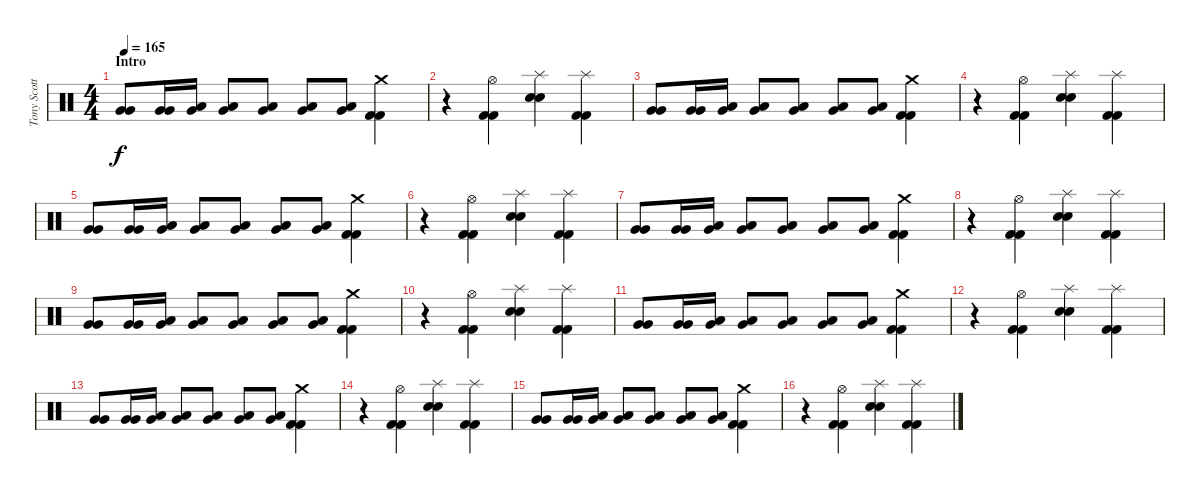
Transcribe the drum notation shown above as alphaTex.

\track ("Tony Scotto (bateria)" "Tony Scott") {instrument percussion}
\staff {score}
\articulation defaults
\ts (4 4)
\section ("" "Intro")
\tempo 165
\clef neutral
\ks c
("Very Low Tom (hit)" "Very Low Tom (hit)").8{dy f} ("Very Low Tom (hit)" "Very Low Tom (hit)").16 ("Low Tom (hit)" "Very Low Tom (hit)").16 ("Low Tom (hit)" "Very Low Tom (hit)").8 ("Low Tom (hit)" "Very Low Tom (hit)").8 ("Low Tom (hit)" "Very Low Tom (hit)").8 ("Low Tom (hit)" "Very Low Tom (hit)").8 ("Crash medium (hit)" "Kick (hit) 2" "Kick (hit) 2").4 |
r.4 ("Hi-Hat (open)" "Kick (hit) 2" "Kick (hit) 2").4 ("Splash (hit)" "Snare (hit) 2" "Snare (hit) 2").4 ("Splash (hit)" "Kick (hit) 2" "Kick (hit) 2").4 |
("Very Low Tom (hit)" "Very Low Tom (hit)").8 ("Very Low Tom (hit)" "Very Low Tom (hit)").16 ("Low Tom (hit)" "Very Low Tom (hit)").16 ("Low Tom (hit)" "Very Low Tom (hit)").8 ("Low Tom (hit)" "Very Low Tom (hit)").8 ("Low Tom (hit)" "Very Low Tom (hit)").8 ("Low Tom (hit)" "Very Low Tom (hit)").8 ("Crash medium (hit)" "Kick (hit) 2" "Kick (hit) 2").4 |
r.4 ("Hi-Hat (open)" "Kick (hit) 2" "Kick (hit) 2").4 ("Splash (hit)" "Snare (hit) 2" "Snare (hit) 2").4 ("Splash (hit)" "Kick (hit) 2" "Kick (hit) 2").4 |
("Very Low Tom (hit)" "Very Low Tom (hit)").8 ("Very Low Tom (hit)" "Very Low Tom (hit)").16 ("Low Tom (hit)" "Very Low Tom (hit)").16 ("Low Tom (hit)" "Very Low Tom (hit)").8 ("Low Tom (hit)" "Very Low Tom (hit)").8 ("Low Tom (hit)" "Very Low Tom (hit)").8 ("Low Tom (hit)" "Very Low Tom (hit)").8 ("Crash medium (hit)" "Kick (hit) 2" "Kick (hit) 2").4 |
r.4 ("Hi-Hat (open)" "Kick (hit) 2" "Kick (hit) 2").4 ("Splash (hit)" "Snare (hit) 2" "Snare (hit) 2").4 ("Splash (hit)" "Kick (hit) 2" "Kick (hit) 2").4 |
("Very Low Tom (hit)" "Very Low Tom (hit)").8 ("Very Low Tom (hit)" "Very Low Tom (hit)").16 ("Low Tom (hit)" "Very Low Tom (hit)").16 ("Low Tom (hit)" "Very Low Tom (hit)").8 ("Low Tom (hit)" "Very Low Tom (hit)").8 ("Low Tom (hit)" "Very Low Tom (hit)").8 ("Low Tom (hit)" "Very Low Tom (hit)").8 ("Crash medium (hit)" "Kick (hit) 2" "Kick (hit) 2").4 |
r.4 ("Hi-Hat (open)" "Kick (hit) 2" "Kick (hit) 2").4 ("Splash (hit)" "Snare (hit) 2" "Snare (hit) 2").4 ("Splash (hit)" "Kick (hit) 2" "Kick (hit) 2").4 |
("Very Low Tom (hit)" "Very Low Tom (hit)").8 ("Very Low Tom (hit)" "Very Low Tom (hit)").16 ("Low Tom (hit)" "Very Low Tom (hit)").16 ("Low Tom (hit)" "Very Low Tom (hit)").8 ("Low Tom (hit)" "Very Low Tom (hit)").8 ("Low Tom (hit)" "Very Low Tom (hit)").8 ("Low Tom (hit)" "Very Low Tom (hit)").8 ("Crash medium (hit)" "Kick (hit) 2" "Kick (hit) 2").4 |
r.4 ("Hi-Hat (open)" "Kick (hit) 2" "Kick (hit) 2").4 ("Splash (hit)" "Snare (hit) 2" "Snare (hit) 2").4 ("Splash (hit)" "Kick (hit) 2" "Kick (hit) 2").4 |
("Very Low Tom (hit)" "Very Low Tom (hit)").8 ("Very Low Tom (hit)" "Very Low Tom (hit)").16 ("Low Tom (hit)" "Very Low Tom (hit)").16 ("Low Tom (hit)" "Very Low Tom (hit)").8 ("Low Tom (hit)" "Very Low Tom (hit)").8 ("Low Tom (hit)" "Very Low Tom (hit)").8 ("Low Tom (hit)" "Very Low Tom (hit)").8 ("Crash medium (hit)" "Kick (hit) 2" "Kick (hit) 2").4 |
r.4 ("Hi-Hat (open)" "Kick (hit) 2" "Kick (hit) 2").4 ("Splash (hit)" "Snare (hit) 2" "Snare (hit) 2").4 ("Splash (hit)" "Kick (hit) 2" "Kick (hit) 2").4 |
("Very Low Tom (hit)" "Very Low Tom (hit)").8 ("Very Low Tom (hit)" "Very Low Tom (hit)").16 ("Low Tom (hit)" "Very Low Tom (hit)").16 ("Low Tom (hit)" "Very Low Tom (hit)").8 ("Low Tom (hit)" "Very Low Tom (hit)").8 ("Low Tom (hit)" "Very Low Tom (hit)").8 ("Low Tom (hit)" "Very Low Tom (hit)").8 ("Crash medium (hit)" "Kick (hit) 2" "Kick (hit) 2").4 |
r.4 ("Hi-Hat (open)" "Kick (hit) 2" "Kick (hit) 2").4 ("Splash (hit)" "Snare (hit) 2" "Snare (hit) 2").4 ("Splash (hit)" "Kick (hit) 2" "Kick (hit) 2").4 |
("Very Low Tom (hit)" "Very Low Tom (hit)").8 ("Very Low Tom (hit)" "Very Low Tom (hit)").16 ("Low Tom (hit)" "Very Low Tom (hit)").16 ("Low Tom (hit)" "Very Low Tom (hit)").8 ("Low Tom (hit)" "Very Low Tom (hit)").8 ("Low Tom (hit)" "Very Low Tom (hit)").8 ("Low Tom (hit)" "Very Low Tom (hit)").8 ("Crash medium (hit)" "Kick (hit) 2" "Kick (hit) 2").4 |
r.4 ("Hi-Hat (open)" "Kick (hit) 2" "Kick (hit) 2").4 ("Splash (hit)" "Snare (hit) 2" "Snare (hit) 2").4 ("Splash (hit)" "Kick (hit) 2" "Kick (hit) 2").4
